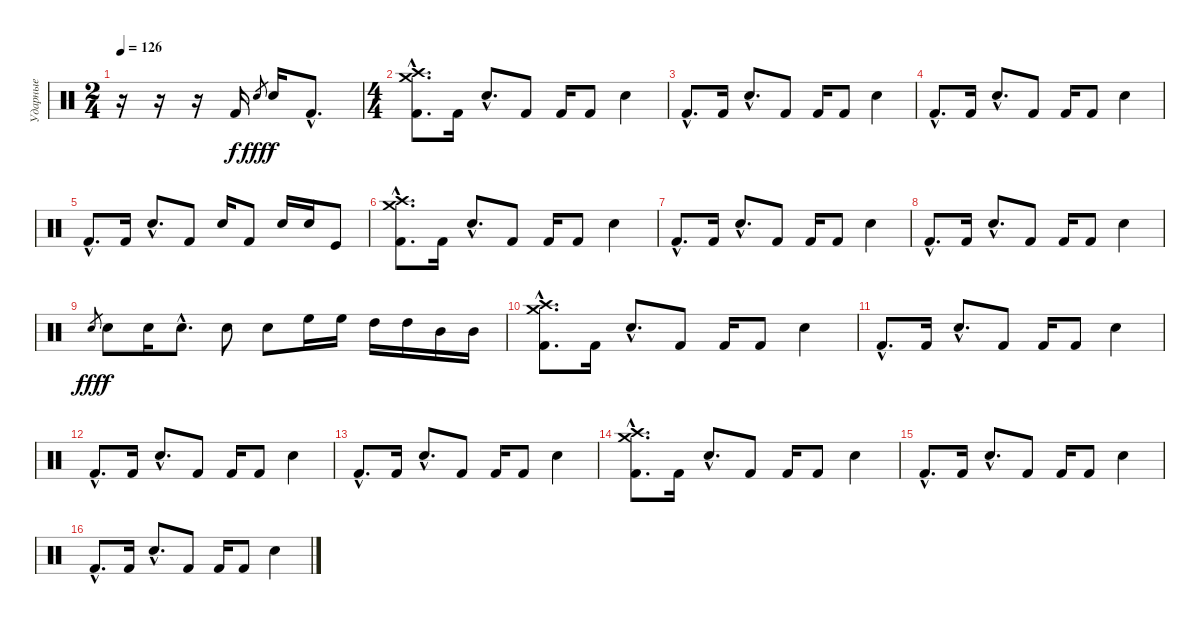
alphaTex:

\track ("Ударные" "Ударные") {instrument percussion}
\staff {score}
\articulation defaults
\ts (2 4)
\tempo 126
\clef neutral
\ks c
r.16{dy f} r.16 r.16 "Kick (hit) 2".16 "Snare (hit) 2"{h}.8{gr dy fff} "Snare (hit) 2".16{dy f} "Kick (hit) 2"{hac}.8{d} |
\ts (4 4)
("Kick (hit) 2"{hac} "Crash high (hit)"{hac} "Crash medium (hit)"{hac}).8{d} "Kick (hit) 2".16 "Snare (hit) 2"{hac}.8{d} "Kick (hit) 2".8 "Kick (hit) 2".16 "Kick (hit) 2".8 "Snare (hit) 2".4 |
"Kick (hit) 2"{hac}.8{d} "Kick (hit) 2".16 "Snare (hit) 2"{hac}.8{d} "Kick (hit) 2".8 "Kick (hit) 2".16 "Kick (hit) 2".8 "Snare (hit) 2".4 |
"Kick (hit) 2"{hac}.8{d} "Kick (hit) 2".16 "Snare (hit) 2"{hac}.8{d} "Kick (hit) 2".8 "Kick (hit) 2".16 "Kick (hit) 2".8 "Snare (hit) 2".4 |
"Kick (hit) 2"{hac}.8{d} "Kick (hit) 2".16 "Snare (hit) 2"{hac}.8{d} "Kick (hit) 2".8 "Snare (hit) 2".16 "Kick (hit) 2".8 "Snare (hit) 2".16 "Snare (hit) 2".16 "Kick (hit)".8 |
("Kick (hit) 2"{hac} "Crash high (hit)"{hac} "Crash medium (hit)"{hac}).8{d} "Kick (hit) 2".16 "Snare (hit) 2"{hac}.8{d} "Kick (hit) 2".8 "Kick (hit) 2".16 "Kick (hit) 2".8 "Snare (hit) 2".4 |
"Kick (hit) 2"{hac}.8{d} "Kick (hit) 2".16 "Snare (hit) 2"{hac}.8{d} "Kick (hit) 2".8 "Kick (hit) 2".16 "Kick (hit) 2".8 "Snare (hit) 2".4 |
"Kick (hit) 2"{hac}.8{d} "Kick (hit) 2".16 "Snare (hit) 2"{hac}.8{d} "Kick (hit) 2".8 "Kick (hit) 2".16 "Kick (hit) 2".8 "Snare (hit) 2".4 |
"Snare (hit) 2".8{gr dy fff} "Snare (hit) 2".8{dy f} "Snare (hit) 2".16 "Snare (hit) 2"{hac}.8{d} "Snare (hit) 2".8 "Snare (hit) 2".8 "High Floor Tom (hit)".16 "High Floor Tom (hit)".16 "High Tom (hit)".16 "High Tom (hit)".16 "Mid Tom (hit)".16 "Mid Tom (hit)".16 |
("Kick (hit) 2"{hac} "Crash high (hit)"{hac} "Crash medium (hit)"{hac}).8{d} "Kick (hit) 2".16 "Snare (hit) 2"{hac}.8{d} "Kick (hit) 2".8 "Kick (hit) 2".16 "Kick (hit) 2".8 "Snare (hit) 2".4 |
"Kick (hit) 2"{hac}.8{d} "Kick (hit) 2".16 "Snare (hit) 2"{hac}.8{d} "Kick (hit) 2".8 "Kick (hit) 2".16 "Kick (hit) 2".8 "Snare (hit) 2".4 |
"Kick (hit) 2"{hac}.8{d} "Kick (hit) 2".16 "Snare (hit) 2"{hac}.8{d} "Kick (hit) 2".8 "Kick (hit) 2".16 "Kick (hit) 2".8 "Snare (hit) 2".4 |
"Kick (hit) 2"{hac}.8{d} "Kick (hit) 2".16 "Snare (hit) 2"{hac}.8{d} "Kick (hit) 2".8 "Kick (hit) 2".16 "Kick (hit) 2".8 "Snare (hit) 2".4 |
("Kick (hit) 2"{hac} "Crash high (hit)"{hac} "Crash medium (hit)"{hac}).8{d} "Kick (hit) 2".16 "Snare (hit) 2"{hac}.8{d} "Kick (hit) 2".8 "Kick (hit) 2".16 "Kick (hit) 2".8 "Snare (hit) 2".4 |
"Kick (hit) 2"{hac}.8{d} "Kick (hit) 2".16 "Snare (hit) 2"{hac}.8{d} "Kick (hit) 2".8 "Kick (hit) 2".16 "Kick (hit) 2".8 "Snare (hit) 2".4 |
"Kick (hit) 2"{hac}.8{d} "Kick (hit) 2".16 "Snare (hit) 2"{hac}.8{d} "Kick (hit) 2".8 "Kick (hit) 2".16 "Kick (hit) 2".8 "Snare (hit) 2".4
